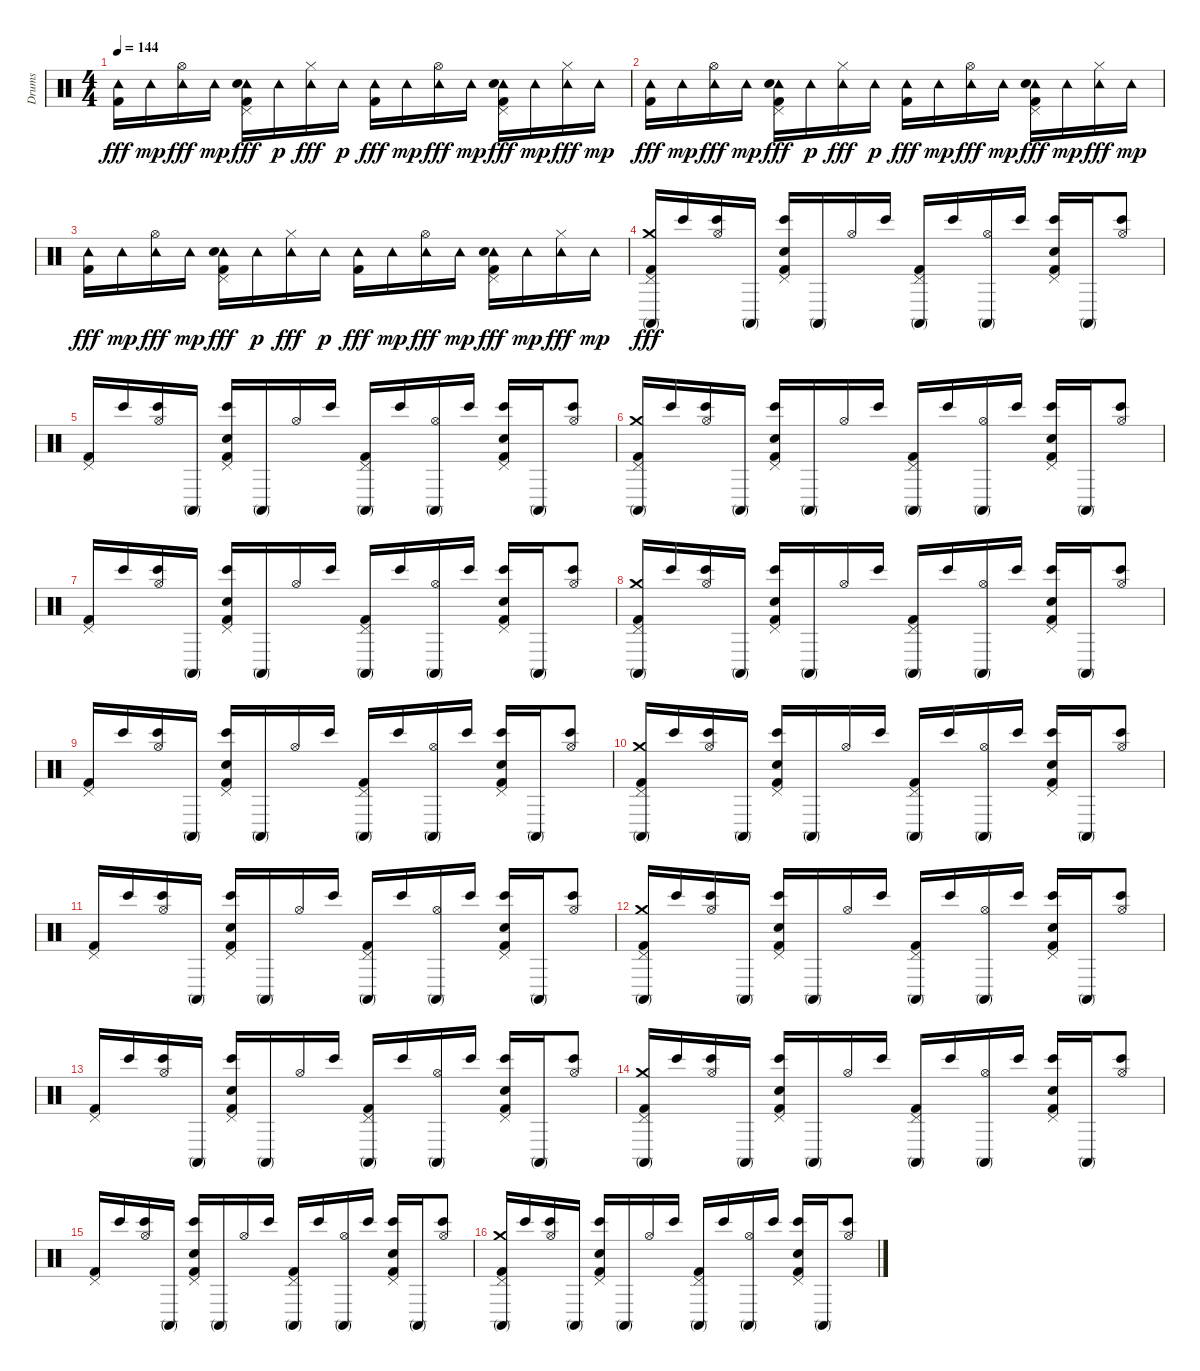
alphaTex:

\track ("Drums" "Drums") {instrument percussion}
\staff {score}
\articulation defaults
\ts (4 4)
\tempo 144
\clef neutral
\ks c
("Tambourine (hit)" "Kick (hit) 2").16{dy fff} "Tambourine (hit)".16{dy mp} ("Tambourine (hit)" "Hi-Hat (open)").16{dy fff} "Tambourine (hit)".16{dy mp} ("Tambourine (hit)" "Pedal Hi-Hat (hit)" "Kick (hit) 2" "Hand Clap (hit)").16{dy fff} "Tambourine (hit)".16{dy p} ("Tambourine (hit)" "Hi-Hat (closed)").16{dy fff} "Tambourine (hit)".16{dy p} ("Tambourine (hit)" "Kick (hit) 2").16{dy fff} "Tambourine (hit)".16{dy mp} ("Tambourine (hit)" "Hi-Hat (open)").16{dy fff} "Tambourine (hit)".16{dy mp} ("Tambourine (hit)" "Pedal Hi-Hat (hit)" "Kick (hit) 2" "Hand Clap (hit)").16{dy fff} "Tambourine (hit)".16{dy mp} ("Tambourine (hit)" "Hi-Hat (closed)").16{dy fff} "Tambourine (hit)".16{dy mp} |
("Tambourine (hit)" "Kick (hit) 2").16{dy fff} "Tambourine (hit)".16{dy mp} ("Tambourine (hit)" "Hi-Hat (open)").16{dy fff} "Tambourine (hit)".16{dy mp} ("Tambourine (hit)" "Pedal Hi-Hat (hit)" "Kick (hit) 2" "Hand Clap (hit)").16{dy fff} "Tambourine (hit)".16{dy p} ("Tambourine (hit)" "Hi-Hat (closed)").16{dy fff} "Tambourine (hit)".16{dy p} ("Tambourine (hit)" "Kick (hit) 2").16{dy fff} "Tambourine (hit)".16{dy mp} ("Tambourine (hit)" "Hi-Hat (open)").16{dy fff} "Tambourine (hit)".16{dy mp} ("Tambourine (hit)" "Pedal Hi-Hat (hit)" "Kick (hit) 2" "Hand Clap (hit)").16{dy fff} "Tambourine (hit)".16{dy mp} ("Tambourine (hit)" "Hi-Hat (closed)").16{dy fff} "Tambourine (hit)".16{dy mp} |
("Tambourine (hit)" "Kick (hit) 2").16{dy fff} "Tambourine (hit)".16{dy mp} ("Tambourine (hit)" "Hi-Hat (open)").16{dy fff} "Tambourine (hit)".16{dy mp} ("Tambourine (hit)" "Pedal Hi-Hat (hit)" "Kick (hit) 2" "Hand Clap (hit)").16{dy fff} "Tambourine (hit)".16{dy p} ("Tambourine (hit)" "Hi-Hat (closed)").16{dy fff} "Tambourine (hit)".16{dy p} ("Tambourine (hit)" "Kick (hit) 2").16{dy fff} "Tambourine (hit)".16{dy mp} ("Tambourine (hit)" "Hi-Hat (open)").16{dy fff} "Tambourine (hit)".16{dy mp} ("Tambourine (hit)" "Pedal Hi-Hat (hit)" "Kick (hit) 2" "Hand Clap (hit)").16{dy fff} "Tambourine (hit)".16{dy mp} ("Tambourine (hit)" "Hi-Hat (closed)").16{dy fff} "Tambourine (hit)".16{dy mp} |
("Pedal Hi-Hat (hit)" "Conga high (mute)" "Crash medium (hit)" "Kick (hit) 2").16{dy fff} "Bongo High (hit)".16 ("Bongo High (hit)" "Hi-Hat (open)").16 "Conga high (mute)".16 ("Pedal Hi-Hat (hit)" "Bongo High (hit)" "Kick (hit) 2" "Hand Clap (hit)").16 "Conga high (mute)".16 "Hi-Hat (open)".16 "Bongo High (hit)".16 ("Pedal Hi-Hat (hit)" "Conga high (mute)" "Kick (hit) 2").16 "Bongo High (hit)".16 ("Hi-Hat (open)" "Conga high (mute)").16 "Bongo High (hit)".16 ("Pedal Hi-Hat (hit)" "Bongo High (hit)" "Kick (hit) 2" "Hand Clap (hit)").16 "Conga high (mute)".16 ("Hi-Hat (open)" "Bongo High (hit)").8 |
("Pedal Hi-Hat (hit)" "Kick (hit) 2").16 "Bongo High (hit)".16 ("Hi-Hat (open)" "Bongo High (hit)").16 "Conga high (mute)".16 ("Bongo High (hit)" "Pedal Hi-Hat (hit)" "Kick (hit) 2" "Hand Clap (hit)").16 "Conga high (mute)".16 "Hi-Hat (open)".16 "Bongo High (hit)".16 ("Pedal Hi-Hat (hit)" "Conga high (mute)" "Kick (hit) 2").16 "Bongo High (hit)".16 ("Hi-Hat (open)" "Conga high (mute)").16 "Bongo High (hit)".16 ("Pedal Hi-Hat (hit)" "Bongo High (hit)" "Kick (hit) 2" "Hand Clap (hit)").16 "Conga high (mute)".16 ("Hi-Hat (open)" "Bongo High (hit)").8 |
("Pedal Hi-Hat (hit)" "Conga high (mute)" "Crash medium (hit)" "Kick (hit) 2").16 "Bongo High (hit)".16 ("Bongo High (hit)" "Hi-Hat (open)").16 "Conga high (mute)".16 ("Pedal Hi-Hat (hit)" "Bongo High (hit)" "Kick (hit) 2" "Hand Clap (hit)").16 "Conga high (mute)".16 "Hi-Hat (open)".16 "Bongo High (hit)".16 ("Pedal Hi-Hat (hit)" "Conga high (mute)" "Kick (hit) 2").16 "Bongo High (hit)".16 ("Hi-Hat (open)" "Conga high (mute)").16 "Bongo High (hit)".16 ("Pedal Hi-Hat (hit)" "Bongo High (hit)" "Kick (hit) 2" "Hand Clap (hit)").16 "Conga high (mute)".16 ("Hi-Hat (open)" "Bongo High (hit)").8 |
("Pedal Hi-Hat (hit)" "Kick (hit) 2").16 "Bongo High (hit)".16 ("Hi-Hat (open)" "Bongo High (hit)").16 "Conga high (mute)".16 ("Bongo High (hit)" "Pedal Hi-Hat (hit)" "Kick (hit) 2" "Hand Clap (hit)").16 "Conga high (mute)".16 "Hi-Hat (open)".16 "Bongo High (hit)".16 ("Pedal Hi-Hat (hit)" "Conga high (mute)" "Kick (hit) 2").16 "Bongo High (hit)".16 ("Hi-Hat (open)" "Conga high (mute)").16 "Bongo High (hit)".16 ("Pedal Hi-Hat (hit)" "Bongo High (hit)" "Kick (hit) 2" "Hand Clap (hit)").16 "Conga high (mute)".16 ("Hi-Hat (open)" "Bongo High (hit)").8 |
("Pedal Hi-Hat (hit)" "Conga high (mute)" "Crash medium (hit)" "Kick (hit) 2").16 "Bongo High (hit)".16 ("Bongo High (hit)" "Hi-Hat (open)").16 "Conga high (mute)".16 ("Pedal Hi-Hat (hit)" "Bongo High (hit)" "Kick (hit) 2" "Hand Clap (hit)").16 "Conga high (mute)".16 "Hi-Hat (open)".16 "Bongo High (hit)".16 ("Pedal Hi-Hat (hit)" "Conga high (mute)" "Kick (hit) 2").16 "Bongo High (hit)".16 ("Hi-Hat (open)" "Conga high (mute)").16 "Bongo High (hit)".16 ("Pedal Hi-Hat (hit)" "Bongo High (hit)" "Kick (hit) 2" "Hand Clap (hit)").16 "Conga high (mute)".16 ("Hi-Hat (open)" "Bongo High (hit)").8 |
("Pedal Hi-Hat (hit)" "Kick (hit) 2").16 "Bongo High (hit)".16 ("Hi-Hat (open)" "Bongo High (hit)").16 "Conga high (mute)".16 ("Bongo High (hit)" "Pedal Hi-Hat (hit)" "Kick (hit) 2" "Hand Clap (hit)").16 "Conga high (mute)".16 "Hi-Hat (open)".16 "Bongo High (hit)".16 ("Pedal Hi-Hat (hit)" "Conga high (mute)" "Kick (hit) 2").16 "Bongo High (hit)".16 ("Hi-Hat (open)" "Conga high (mute)").16 "Bongo High (hit)".16 ("Pedal Hi-Hat (hit)" "Bongo High (hit)" "Kick (hit) 2" "Hand Clap (hit)").16 "Conga high (mute)".16 ("Hi-Hat (open)" "Bongo High (hit)").8 |
("Pedal Hi-Hat (hit)" "Conga high (mute)" "Crash medium (hit)" "Kick (hit) 2").16 "Bongo High (hit)".16 ("Bongo High (hit)" "Hi-Hat (open)").16 "Conga high (mute)".16 ("Pedal Hi-Hat (hit)" "Bongo High (hit)" "Kick (hit) 2" "Hand Clap (hit)").16 "Conga high (mute)".16 "Hi-Hat (open)".16 "Bongo High (hit)".16 ("Pedal Hi-Hat (hit)" "Conga high (mute)" "Kick (hit) 2").16 "Bongo High (hit)".16 ("Hi-Hat (open)" "Conga high (mute)").16 "Bongo High (hit)".16 ("Pedal Hi-Hat (hit)" "Bongo High (hit)" "Kick (hit) 2" "Hand Clap (hit)").16 "Conga high (mute)".16 ("Hi-Hat (open)" "Bongo High (hit)").8 |
("Pedal Hi-Hat (hit)" "Kick (hit) 2").16 "Bongo High (hit)".16 ("Hi-Hat (open)" "Bongo High (hit)").16 "Conga high (mute)".16 ("Bongo High (hit)" "Pedal Hi-Hat (hit)" "Kick (hit) 2" "Hand Clap (hit)").16 "Conga high (mute)".16 "Hi-Hat (open)".16 "Bongo High (hit)".16 ("Pedal Hi-Hat (hit)" "Conga high (mute)" "Kick (hit) 2").16 "Bongo High (hit)".16 ("Hi-Hat (open)" "Conga high (mute)").16 "Bongo High (hit)".16 ("Pedal Hi-Hat (hit)" "Bongo High (hit)" "Kick (hit) 2" "Hand Clap (hit)").16 "Conga high (mute)".16 ("Hi-Hat (open)" "Bongo High (hit)").8 |
("Pedal Hi-Hat (hit)" "Conga high (mute)" "Crash medium (hit)" "Kick (hit) 2").16 "Bongo High (hit)".16 ("Bongo High (hit)" "Hi-Hat (open)").16 "Conga high (mute)".16 ("Pedal Hi-Hat (hit)" "Bongo High (hit)" "Kick (hit) 2" "Hand Clap (hit)").16 "Conga high (mute)".16 "Hi-Hat (open)".16 "Bongo High (hit)".16 ("Pedal Hi-Hat (hit)" "Conga high (mute)" "Kick (hit) 2").16 "Bongo High (hit)".16 ("Hi-Hat (open)" "Conga high (mute)").16 "Bongo High (hit)".16 ("Pedal Hi-Hat (hit)" "Bongo High (hit)" "Kick (hit) 2" "Hand Clap (hit)").16 "Conga high (mute)".16 ("Hi-Hat (open)" "Bongo High (hit)").8 |
("Pedal Hi-Hat (hit)" "Kick (hit) 2").16 "Bongo High (hit)".16 ("Hi-Hat (open)" "Bongo High (hit)").16 "Conga high (mute)".16 ("Bongo High (hit)" "Pedal Hi-Hat (hit)" "Kick (hit) 2" "Hand Clap (hit)").16 "Conga high (mute)".16 "Hi-Hat (open)".16 "Bongo High (hit)".16 ("Pedal Hi-Hat (hit)" "Conga high (mute)" "Kick (hit) 2").16 "Bongo High (hit)".16 ("Hi-Hat (open)" "Conga high (mute)").16 "Bongo High (hit)".16 ("Pedal Hi-Hat (hit)" "Bongo High (hit)" "Kick (hit) 2" "Hand Clap (hit)").16 "Conga high (mute)".16 ("Hi-Hat (open)" "Bongo High (hit)").8 |
("Pedal Hi-Hat (hit)" "Conga high (mute)" "Crash medium (hit)" "Kick (hit) 2").16 "Bongo High (hit)".16 ("Bongo High (hit)" "Hi-Hat (open)").16 "Conga high (mute)".16 ("Pedal Hi-Hat (hit)" "Bongo High (hit)" "Kick (hit) 2" "Hand Clap (hit)").16 "Conga high (mute)".16 "Hi-Hat (open)".16 "Bongo High (hit)".16 ("Pedal Hi-Hat (hit)" "Conga high (mute)" "Kick (hit) 2").16 "Bongo High (hit)".16 ("Hi-Hat (open)" "Conga high (mute)").16 "Bongo High (hit)".16 ("Pedal Hi-Hat (hit)" "Bongo High (hit)" "Kick (hit) 2" "Hand Clap (hit)").16 "Conga high (mute)".16 ("Hi-Hat (open)" "Bongo High (hit)").8 |
("Pedal Hi-Hat (hit)" "Kick (hit) 2").16 "Bongo High (hit)".16 ("Hi-Hat (open)" "Bongo High (hit)").16 "Conga high (mute)".16 ("Bongo High (hit)" "Pedal Hi-Hat (hit)" "Kick (hit) 2" "Hand Clap (hit)").16 "Conga high (mute)".16 "Hi-Hat (open)".16 "Bongo High (hit)".16 ("Pedal Hi-Hat (hit)" "Conga high (mute)" "Kick (hit) 2").16 "Bongo High (hit)".16 ("Hi-Hat (open)" "Conga high (mute)").16 "Bongo High (hit)".16 ("Pedal Hi-Hat (hit)" "Bongo High (hit)" "Kick (hit) 2" "Hand Clap (hit)").16 "Conga high (mute)".16 ("Hi-Hat (open)" "Bongo High (hit)").8 |
("Pedal Hi-Hat (hit)" "Conga high (mute)" "Crash medium (hit)" "Kick (hit) 2").16 "Bongo High (hit)".16 ("Bongo High (hit)" "Hi-Hat (open)").16 "Conga high (mute)".16 ("Pedal Hi-Hat (hit)" "Bongo High (hit)" "Kick (hit) 2" "Hand Clap (hit)").16 "Conga high (mute)".16 "Hi-Hat (open)".16 "Bongo High (hit)".16 ("Pedal Hi-Hat (hit)" "Conga high (mute)" "Kick (hit) 2").16 "Bongo High (hit)".16 ("Hi-Hat (open)" "Conga high (mute)").16 "Bongo High (hit)".16 ("Pedal Hi-Hat (hit)" "Bongo High (hit)" "Kick (hit) 2" "Hand Clap (hit)").16 "Conga high (mute)".16 ("Hi-Hat (open)" "Bongo High (hit)").8
